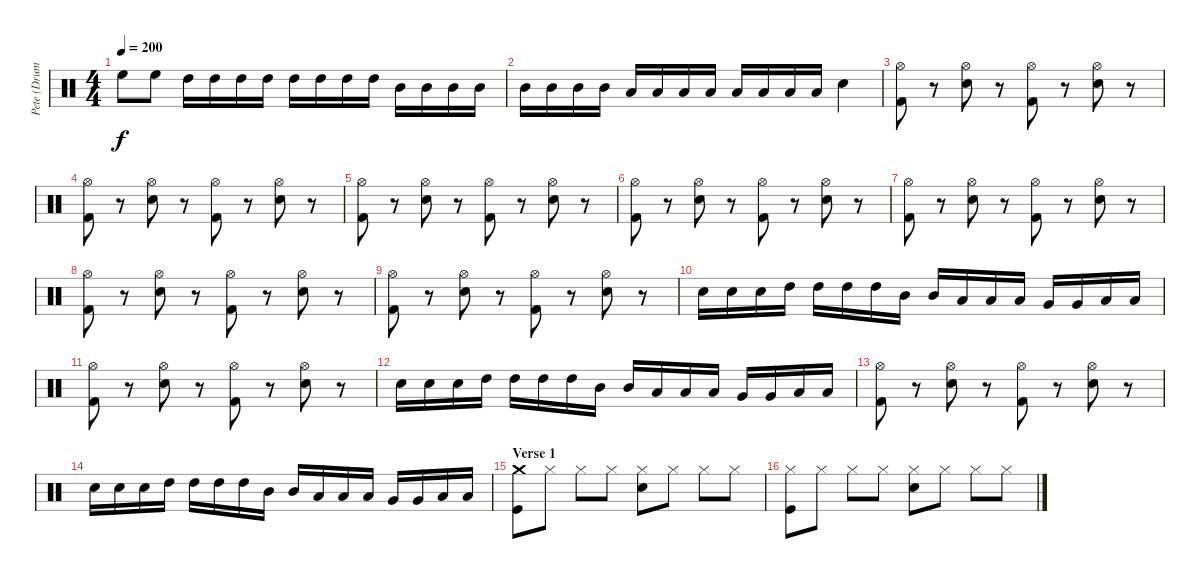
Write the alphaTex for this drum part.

\track ("Pete (Drums)" "Pete (Drum") {instrument percussion}
\staff {score}
\articulation defaults
\ts (4 4)
\tempo 200
\clef neutral
\ks c "High Floor Tom (hit)".8{dy f} "High Floor Tom (hit)".8 "High Tom (hit)".16 "High Tom (hit)".16 "High Tom (hit)".16 "High Tom (hit)".16 "High Tom (hit)".16 "High Tom (hit)".16 "High Tom (hit)".16 "High Tom (hit)".16 "Mid Tom (hit)".16 "Mid Tom (hit)".16 "Mid Tom (hit)".16 "Mid Tom (hit)".16
|
"Mid Tom (hit)".16 "Mid Tom (hit)".16 "Mid Tom (hit)".16 "Mid Tom (hit)".16 "Low Tom (hit)".16 "Low Tom (hit)".16 "Low Tom (hit)".16 "Low Tom (hit)".16 "Low Tom (hit)".16 "Low Tom (hit)".16 "Low Tom (hit)".16 "Low Tom (hit)".16 "Snare (hit) 2".4 |
("Hi-Hat (open)" "Kick (hit) 2").8 r.8 ("Hi-Hat (open)" "Snare (hit) 2").8 r.8 ("Hi-Hat (open)" "Kick (hit) 2").8 r.8 ("Hi-Hat (open)" "Snare (hit) 2").8 r.8 |
("Hi-Hat (open)" "Kick (hit) 2").8 r.8 ("Hi-Hat (open)" "Snare (hit) 2").8 r.8 ("Hi-Hat (open)" "Kick (hit) 2").8 r.8 ("Hi-Hat (open)" "Snare (hit) 2").8 r.8 |
("Hi-Hat (open)" "Kick (hit) 2").8 r.8 ("Hi-Hat (open)" "Snare (hit) 2").8 r.8 ("Hi-Hat (open)" "Kick (hit) 2").8 r.8 ("Hi-Hat (open)" "Snare (hit) 2").8 r.8 |
("Hi-Hat (open)" "Kick (hit) 2").8 r.8 ("Hi-Hat (open)" "Snare (hit) 2").8 r.8 ("Hi-Hat (open)" "Kick (hit) 2").8 r.8 ("Hi-Hat (open)" "Snare (hit) 2").8 r.8 |
("Hi-Hat (open)" "Kick (hit) 2").8 r.8 ("Hi-Hat (open)" "Snare (hit) 2").8 r.8 ("Hi-Hat (open)" "Kick (hit) 2").8 r.8 ("Hi-Hat (open)" "Snare (hit) 2").8 r.8 |
("Hi-Hat (open)" "Kick (hit) 2").8 r.8 ("Hi-Hat (open)" "Snare (hit) 2").8 r.8 ("Hi-Hat (open)" "Kick (hit) 2").8 r.8 ("Hi-Hat (open)" "Snare (hit) 2").8 r.8 |
("Hi-Hat (open)" "Kick (hit) 2").8 r.8 ("Hi-Hat (open)" "Snare (hit) 2").8 r.8 ("Hi-Hat (open)" "Kick (hit) 2").8 r.8 ("Hi-Hat (open)" "Snare (hit) 2").8 r.8 |
"Snare (hit) 2".16 "Snare (hit) 2".16 "Snare (hit) 2".16 "High Tom (hit)".16 "High Tom (hit)".16 "High Tom (hit)".16 "High Tom (hit)".16 "Mid Tom (hit)".16 "Mid Tom (hit)".16 "Low Tom (hit)".16 "Low Tom (hit)".16 "Low Tom (hit)".16 "Very Low Tom (hit)".16 "Very Low Tom (hit)".16 "Low Floor Tom (hit)".16 "Low Floor Tom (hit)".16 |
("Hi-Hat (open)" "Kick (hit) 2").8 r.8 ("Hi-Hat (open)" "Snare (hit) 2").8 r.8 ("Hi-Hat (open)" "Kick (hit) 2").8 r.8 ("Hi-Hat (open)" "Snare (hit) 2").8 r.8 |
"Snare (hit) 2".16 "Snare (hit) 2".16 "Snare (hit) 2".16 "High Tom (hit)".16 "High Tom (hit)".16 "High Tom (hit)".16 "High Tom (hit)".16 "Mid Tom (hit)".16 "Mid Tom (hit)".16 "Low Tom (hit)".16 "Low Tom (hit)".16 "Low Tom (hit)".16 "Very Low Tom (hit)".16 "Very Low Tom (hit)".16 "Low Floor Tom (hit)".16 "Low Floor Tom (hit)".16 |
("Hi-Hat (open)" "Kick (hit) 2").8 r.8 ("Hi-Hat (open)" "Snare (hit) 2").8 r.8 ("Hi-Hat (open)" "Kick (hit) 2").8 r.8 ("Hi-Hat (open)" "Snare (hit) 2").8 r.8 |
"Snare (hit) 2".16 "Snare (hit) 2".16 "Snare (hit) 2".16 "High Tom (hit)".16 "High Tom (hit)".16 "High Tom (hit)".16 "High Tom (hit)".16 "Mid Tom (hit)".16 "Mid Tom (hit)".16 "Low Tom (hit)".16 "Low Tom (hit)".16 "Low Tom (hit)".16 "Very Low Tom (hit)".16 "Very Low Tom (hit)".16 "Low Floor Tom (hit)".16 "Low Floor Tom (hit)".16 |
\section ("" "Verse 1")
("Crash medium (hit)" "Kick (hit)").8 "Hi-Hat (closed)".8 "Hi-Hat (closed)".8 "Hi-Hat (closed)".8 ("Hi-Hat (closed)" "Snare (hit) 2").8 "Hi-Hat (closed)".8 "Hi-Hat (closed)".8 "Hi-Hat (closed)".8 |
("Hi-Hat (closed)" "Kick (hit)").8 "Hi-Hat (closed)".8 "Hi-Hat (closed)".8 "Hi-Hat (closed)".8 ("Hi-Hat (closed)" "Snare (hit) 2").8 "Hi-Hat (closed)".8 "Hi-Hat (closed)".8 "Hi-Hat (closed)".8
